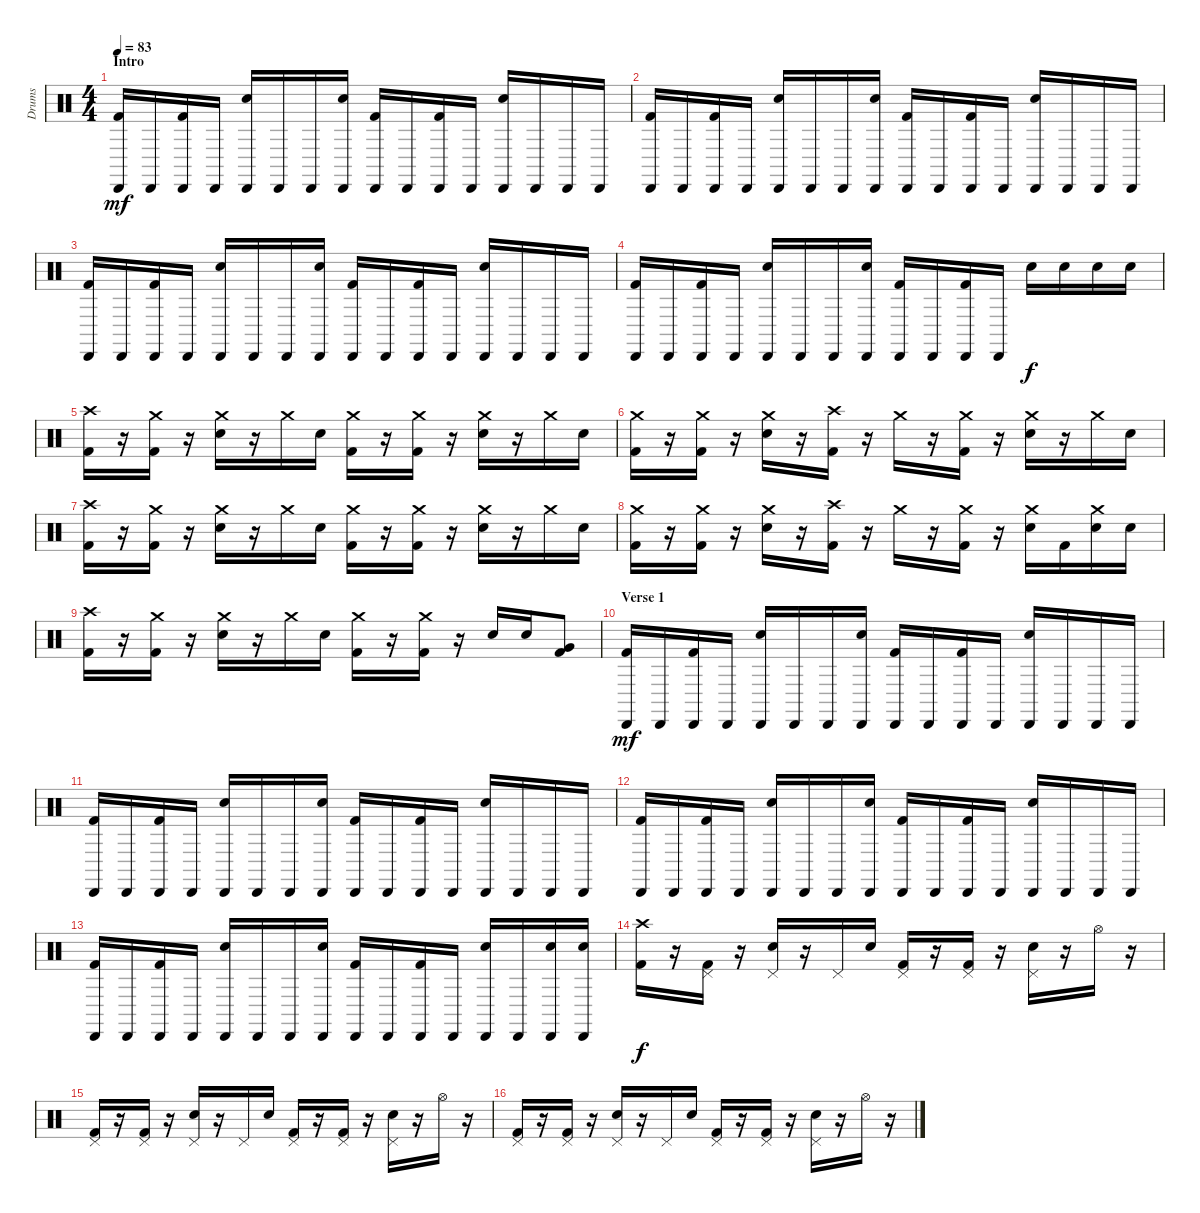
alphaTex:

\track ("Drums" "Drums") {instrument percussion}
\staff {score}
\articulation defaults
\ts (4 4)
\section ("" "Intro")
\tempo 83
\clef neutral
\ks c
("Cabasa (hit)" "Kick (hit) 2").16{dy mf} "Cabasa (hit)".16 ("Cabasa (hit)" "Kick (hit) 2").16 "Cabasa (hit)".16 ("Cabasa (hit)" "Electric Snare (hit)").16 "Cabasa (hit)".16 "Cabasa (hit)".16 ("Cabasa (hit)" "Electric Snare (hit)").16 ("Cabasa (hit)" "Kick (hit) 2").16 "Cabasa (hit)".16 ("Cabasa (hit)" "Kick (hit) 2").16 "Cabasa (hit)".16 ("Cabasa (hit)" "Electric Snare (hit)").16 "Cabasa (hit)".16 "Cabasa (hit)".16 "Cabasa (hit)".16 |
("Cabasa (hit)" "Kick (hit) 2").16 "Cabasa (hit)".16 ("Cabasa (hit)" "Kick (hit) 2").16 "Cabasa (hit)".16 ("Cabasa (hit)" "Electric Snare (hit)").16 "Cabasa (hit)".16 "Cabasa (hit)".16 ("Cabasa (hit)" "Electric Snare (hit)").16 ("Cabasa (hit)" "Kick (hit) 2").16 "Cabasa (hit)".16 ("Cabasa (hit)" "Kick (hit) 2").16 "Cabasa (hit)".16 ("Cabasa (hit)" "Electric Snare (hit)").16 "Cabasa (hit)".16 "Cabasa (hit)".16 "Cabasa (hit)".16 |
("Cabasa (hit)" "Kick (hit) 2").16 "Cabasa (hit)".16 ("Cabasa (hit)" "Kick (hit) 2").16 "Cabasa (hit)".16 ("Cabasa (hit)" "Electric Snare (hit)").16 "Cabasa (hit)".16 "Cabasa (hit)".16 ("Cabasa (hit)" "Electric Snare (hit)").16 ("Cabasa (hit)" "Kick (hit) 2").16 "Cabasa (hit)".16 ("Cabasa (hit)" "Kick (hit) 2").16 "Cabasa (hit)".16 ("Cabasa (hit)" "Electric Snare (hit)").16 "Cabasa (hit)".16 "Cabasa (hit)".16 "Cabasa (hit)".16 |
("Cabasa (hit)" "Kick (hit) 2").16 "Cabasa (hit)".16 ("Cabasa (hit)" "Kick (hit) 2").16 "Cabasa (hit)".16 ("Cabasa (hit)" "Electric Snare (hit)").16 "Cabasa (hit)".16 "Cabasa (hit)".16 ("Cabasa (hit)" "Electric Snare (hit)").16 ("Cabasa (hit)" "Kick (hit) 2").16 "Cabasa (hit)".16 ("Cabasa (hit)" "Kick (hit) 2").16 "Cabasa (hit)".16 "Electric Snare (hit)".16{dy f} "Electric Snare (hit)".16 "Electric Snare (hit)".16 "Electric Snare (hit)".16 |
("Crash high (hit)" "Kick (hit) 2").16 r.16 ("Crash medium (hit)" "Kick (hit) 2").16 r.16 ("Crash medium (hit)" "Electric Snare (hit)").16 r.16 "Crash medium (hit)".16 "Electric Snare (hit)".16 ("Crash medium (hit)" "Kick (hit) 2").16 r.16 ("Crash medium (hit)" "Kick (hit) 2").16 r.16 ("Crash medium (hit)" "Electric Snare (hit)").16 r.16 "Crash medium (hit)".16 "Electric Snare (hit)".16 |
("Crash medium (hit)" "Kick (hit) 2").16 r.16 ("Crash medium (hit)" "Kick (hit) 2").16 r.16 ("Crash medium (hit)" "Electric Snare (hit)").16 r.16 ("Crash high (hit)" "Kick (hit) 2").16 r.16 "Crash medium (hit)".16 r.16 ("Crash medium (hit)" "Kick (hit) 2").16 r.16 ("Crash medium (hit)" "Electric Snare (hit)").16 r.16 "Crash medium (hit)".16 "Electric Snare (hit)".16 |
("Crash high (hit)" "Kick (hit) 2").16 r.16 ("Crash medium (hit)" "Kick (hit) 2").16 r.16 ("Crash medium (hit)" "Electric Snare (hit)").16 r.16 "Crash medium (hit)".16 "Electric Snare (hit)".16 ("Crash medium (hit)" "Kick (hit) 2").16 r.16 ("Crash medium (hit)" "Kick (hit) 2").16 r.16 ("Crash medium (hit)" "Electric Snare (hit)").16 r.16 "Crash medium (hit)".16 "Electric Snare (hit)".16 |
("Crash medium (hit)" "Kick (hit) 2").16 r.16 ("Crash medium (hit)" "Kick (hit) 2").16 r.16 ("Crash medium (hit)" "Electric Snare (hit)").16 r.16 ("Crash high (hit)" "Kick (hit) 2").16 r.16 "Crash medium (hit)".16 r.16 ("Crash medium (hit)" "Kick (hit) 2").16 r.16 ("Crash medium (hit)" "Electric Snare (hit)").16 "Kick (hit) 2".16 ("Crash medium (hit)" "Electric Snare (hit)").16 "Electric Snare (hit)".16 |
("Crash high (hit)" "Kick (hit) 2").16 r.16 ("Crash medium (hit)" "Kick (hit) 2").16 r.16 ("Crash medium (hit)" "Electric Snare (hit)").16 r.16 "Crash medium (hit)".16 "Electric Snare (hit)".16 ("Crash medium (hit)" "Kick (hit) 2").16 r.16 ("Crash medium (hit)" "Kick (hit) 2").16 r.16 "Electric Snare (hit)".16 "Electric Snare (hit)".16 ("Very Low Tom (hit)" "Kick (hit) 2").8 |
\section ("" "Verse 1")
("Cabasa (hit)" "Kick (hit) 2").16{dy mf} "Cabasa (hit)".16 ("Cabasa (hit)" "Kick (hit) 2").16 "Cabasa (hit)".16 ("Cabasa (hit)" "Electric Snare (hit)").16 "Cabasa (hit)".16 "Cabasa (hit)".16 ("Cabasa (hit)" "Electric Snare (hit)").16 ("Cabasa (hit)" "Kick (hit) 2").16 "Cabasa (hit)".16 ("Cabasa (hit)" "Kick (hit) 2").16 "Cabasa (hit)".16 ("Cabasa (hit)" "Electric Snare (hit)").16 "Cabasa (hit)".16 "Cabasa (hit)".16 "Cabasa (hit)".16 |
("Cabasa (hit)" "Kick (hit) 2").16 "Cabasa (hit)".16 ("Cabasa (hit)" "Kick (hit) 2").16 "Cabasa (hit)".16 ("Cabasa (hit)" "Electric Snare (hit)").16 "Cabasa (hit)".16 "Cabasa (hit)".16 ("Cabasa (hit)" "Electric Snare (hit)").16 ("Cabasa (hit)" "Kick (hit) 2").16 "Cabasa (hit)".16 ("Cabasa (hit)" "Kick (hit) 2").16 "Cabasa (hit)".16 ("Cabasa (hit)" "Electric Snare (hit)").16 "Cabasa (hit)".16 "Cabasa (hit)".16 "Cabasa (hit)".16 |
("Cabasa (hit)" "Kick (hit) 2").16 "Cabasa (hit)".16 ("Cabasa (hit)" "Kick (hit) 2").16 "Cabasa (hit)".16 ("Cabasa (hit)" "Electric Snare (hit)").16 "Cabasa (hit)".16 "Cabasa (hit)".16 ("Cabasa (hit)" "Electric Snare (hit)").16 ("Cabasa (hit)" "Kick (hit) 2").16 "Cabasa (hit)".16 ("Cabasa (hit)" "Kick (hit) 2").16 "Cabasa (hit)".16 ("Cabasa (hit)" "Electric Snare (hit)").16 "Cabasa (hit)".16 "Cabasa (hit)".16 "Cabasa (hit)".16 |
("Cabasa (hit)" "Kick (hit) 2").16 "Cabasa (hit)".16 ("Cabasa (hit)" "Kick (hit) 2").16 "Cabasa (hit)".16 ("Cabasa (hit)" "Electric Snare (hit)").16 "Cabasa (hit)".16 "Cabasa (hit)".16 ("Cabasa (hit)" "Electric Snare (hit)").16 ("Cabasa (hit)" "Kick (hit) 2").16 "Cabasa (hit)".16 ("Cabasa (hit)" "Kick (hit) 2").16 "Cabasa (hit)".16 ("Cabasa (hit)" "Electric Snare (hit)").16 "Cabasa (hit)".16 ("Cabasa (hit)" "Electric Snare (hit)").16 ("Cabasa (hit)" "Electric Snare (hit)").16 |
("Crash high (hit)" "Kick (hit) 2").16{dy f} r.16 ("Pedal Hi-Hat (hit)" "Kick (hit) 2").16 r.16 ("Pedal Hi-Hat (hit)" "Electric Snare (hit)").16 r.16 "Pedal Hi-Hat (hit)".16 "Electric Snare (hit)".16 ("Pedal Hi-Hat (hit)" "Kick (hit) 2").16 r.16 ("Pedal Hi-Hat (hit)" "Kick (hit) 2").16 r.16 ("Pedal Hi-Hat (hit)" "Electric Snare (hit)").16 r.16 "Hi-Hat (open)".16 r.16 |
("Pedal Hi-Hat (hit)" "Kick (hit) 2").16 r.16 ("Pedal Hi-Hat (hit)" "Kick (hit) 2").16 r.16 ("Pedal Hi-Hat (hit)" "Electric Snare (hit)").16 r.16 "Pedal Hi-Hat (hit)".16 "Electric Snare (hit)".16 ("Pedal Hi-Hat (hit)" "Kick (hit) 2").16 r.16 ("Pedal Hi-Hat (hit)" "Kick (hit) 2").16 r.16 ("Pedal Hi-Hat (hit)" "Electric Snare (hit)").16 r.16 "Hi-Hat (open)".16 r.16 |
("Pedal Hi-Hat (hit)" "Kick (hit) 2").16 r.16 ("Pedal Hi-Hat (hit)" "Kick (hit) 2").16 r.16 ("Pedal Hi-Hat (hit)" "Electric Snare (hit)").16 r.16 "Pedal Hi-Hat (hit)".16 "Electric Snare (hit)".16 ("Pedal Hi-Hat (hit)" "Kick (hit) 2").16 r.16 ("Pedal Hi-Hat (hit)" "Kick (hit) 2").16 r.16 ("Pedal Hi-Hat (hit)" "Electric Snare (hit)").16 r.16 "Hi-Hat (open)".16 r.16
